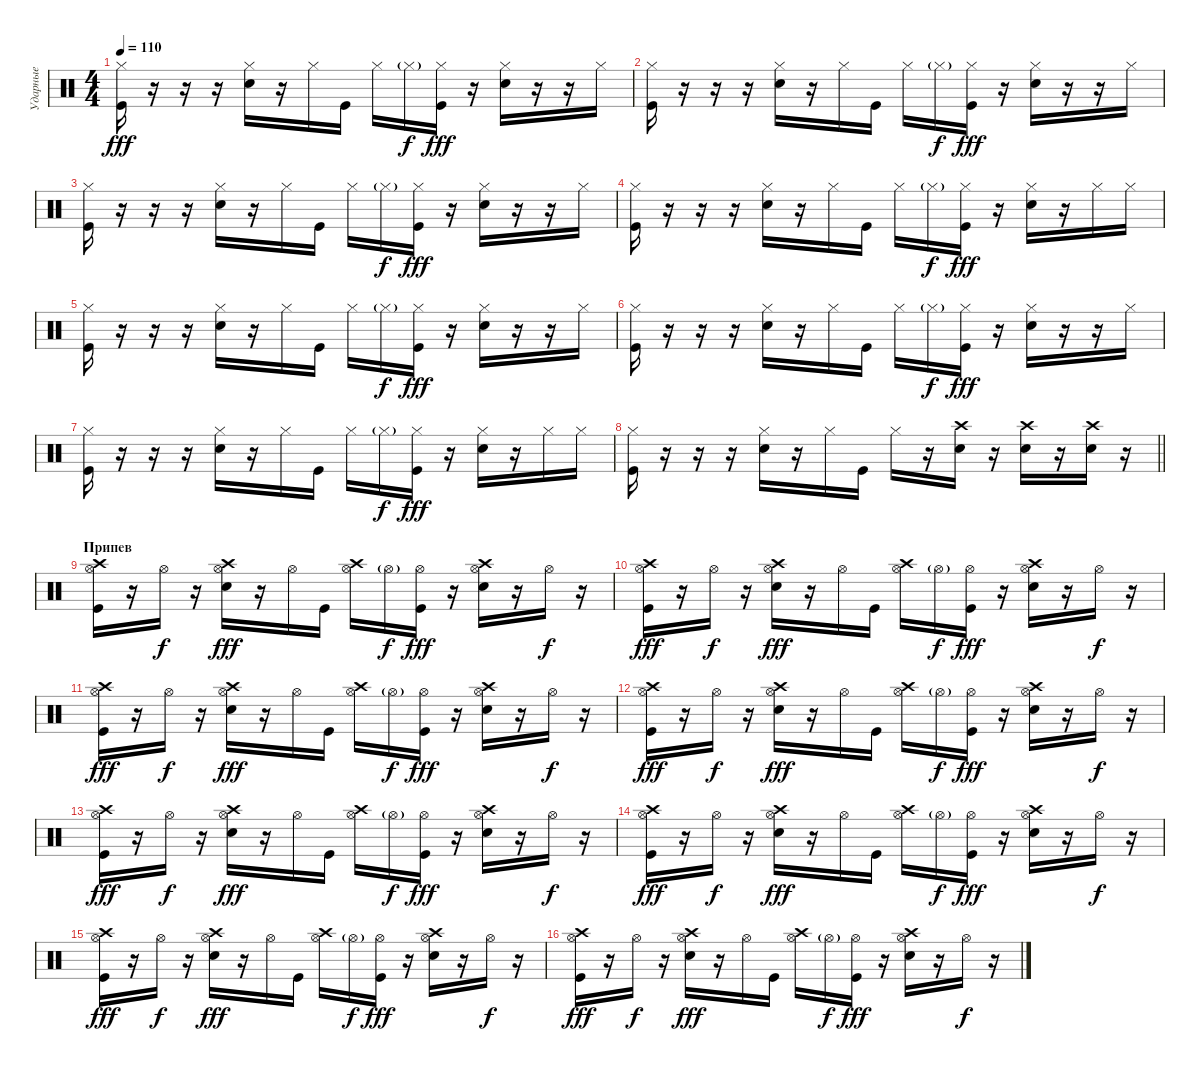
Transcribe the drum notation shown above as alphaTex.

\track ("Ударные" "Ударные") {instrument percussion}
\staff {score}
\articulation defaults
\ts (4 4)
\tempo 110
\clef neutral
\ks c
("Hi-Hat (closed)" "Kick (hit)").16{dy fff} r.16 r.16 r.16 ("Hi-Hat (closed)" "Electric Snare (hit)").16 r.16 "Hi-Hat (closed)".16 "Kick (hit)".16 "Hi-Hat (closed)".16 "Hi-Hat (closed)"{g}.16{dy f} ("Hi-Hat (closed)" "Kick (hit)").16{dy fff} r.16 ("Hi-Hat (closed)" "Electric Snare (hit)").16 r.16 r.16 "Hi-Hat (closed)".16 |
("Hi-Hat (closed)" "Kick (hit)").16 r.16 r.16 r.16 ("Hi-Hat (closed)" "Electric Snare (hit)").16 r.16 "Hi-Hat (closed)".16 "Kick (hit)".16 "Hi-Hat (closed)".16 "Hi-Hat (closed)"{g}.16{dy f} ("Hi-Hat (closed)" "Kick (hit)").16{dy fff} r.16 ("Hi-Hat (closed)" "Electric Snare (hit)").16 r.16 r.16 "Hi-Hat (closed)".16 |
("Hi-Hat (closed)" "Kick (hit)").16 r.16 r.16 r.16 ("Hi-Hat (closed)" "Electric Snare (hit)").16 r.16 "Hi-Hat (closed)".16 "Kick (hit)".16 "Hi-Hat (closed)".16 "Hi-Hat (closed)"{g}.16{dy f} ("Hi-Hat (closed)" "Kick (hit)").16{dy fff} r.16 ("Hi-Hat (closed)" "Electric Snare (hit)").16 r.16 r.16 "Hi-Hat (closed)".16 |
("Hi-Hat (closed)" "Kick (hit)").16 r.16 r.16 r.16 ("Hi-Hat (closed)" "Electric Snare (hit)").16 r.16 "Hi-Hat (closed)".16 "Kick (hit)".16 "Hi-Hat (closed)".16 "Hi-Hat (closed)"{g}.16{dy f} ("Hi-Hat (closed)" "Kick (hit)").16{dy fff} r.16 ("Hi-Hat (closed)" "Electric Snare (hit)").16 r.16 "Hi-Hat (closed)".16 "Hi-Hat (closed)".16 |
("Hi-Hat (closed)" "Kick (hit)").16 r.16 r.16 r.16 ("Hi-Hat (closed)" "Electric Snare (hit)").16 r.16 "Hi-Hat (closed)".16 "Kick (hit)".16 "Hi-Hat (closed)".16 "Hi-Hat (closed)"{g}.16{dy f} ("Hi-Hat (closed)" "Kick (hit)").16{dy fff} r.16 ("Hi-Hat (closed)" "Electric Snare (hit)").16 r.16 r.16 "Hi-Hat (closed)".16 |
("Hi-Hat (closed)" "Kick (hit)").16 r.16 r.16 r.16 ("Hi-Hat (closed)" "Electric Snare (hit)").16 r.16 "Hi-Hat (closed)".16 "Kick (hit)".16 "Hi-Hat (closed)".16 "Hi-Hat (closed)"{g}.16{dy f} ("Hi-Hat (closed)" "Kick (hit)").16{dy fff} r.16 ("Hi-Hat (closed)" "Electric Snare (hit)").16 r.16 r.16 "Hi-Hat (closed)".16 |
("Hi-Hat (closed)" "Kick (hit)").16 r.16 r.16 r.16 ("Hi-Hat (closed)" "Electric Snare (hit)").16 r.16 "Hi-Hat (closed)".16 "Kick (hit)".16 "Hi-Hat (closed)".16 "Hi-Hat (closed)"{g}.16{dy f} ("Hi-Hat (closed)" "Kick (hit)").16{dy fff} r.16 ("Hi-Hat (closed)" "Electric Snare (hit)").16 r.16 "Hi-Hat (closed)".16 "Hi-Hat (closed)".16 |
\barLineRight lightlight
("Hi-Hat (closed)" "Kick (hit)").16 r.16 r.16 r.16 ("Hi-Hat (closed)" "Electric Snare (hit)").16 r.16 "Hi-Hat (closed)".16 "Kick (hit)".16 "Hi-Hat (closed)".16 r.16 ("Electric Snare (hit)" "Crash high (hit)").16 r.16 ("Electric Snare (hit)" "Crash high (hit)").16 r.16 ("Electric Snare (hit)" "Crash high (hit)").16 r.16 |
\section ("" "Припев")
("Hi-Hat (open)" "Kick (hit)" "Crash high (hit)").16 r.16 "Hi-Hat (open)".16{dy f} r.16 ("Hi-Hat (open)" "Electric Snare (hit)" "Crash high (hit)").16{dy fff} r.16 "Hi-Hat (open)".16 "Kick (hit)".16 ("Hi-Hat (open)" "Crash high (hit)").16 "Hi-Hat (open)"{g}.16{dy f} ("Hi-Hat (open)" "Kick (hit)").16{dy fff} r.16 ("Hi-Hat (open)" "Electric Snare (hit)" "Crash high (hit)").16 r.16 "Hi-Hat (open)".16{dy f} r.16 |
("Hi-Hat (open)" "Kick (hit)" "Crash high (hit)").16{dy fff} r.16 "Hi-Hat (open)".16{dy f} r.16 ("Hi-Hat (open)" "Electric Snare (hit)" "Crash high (hit)").16{dy fff} r.16 "Hi-Hat (open)".16 "Kick (hit)".16 ("Hi-Hat (open)" "Crash high (hit)").16 "Hi-Hat (open)"{g}.16{dy f} ("Hi-Hat (open)" "Kick (hit)").16{dy fff} r.16 ("Hi-Hat (open)" "Electric Snare (hit)" "Crash high (hit)").16 r.16 "Hi-Hat (open)".16{dy f} r.16 |
("Hi-Hat (open)" "Kick (hit)" "Crash high (hit)").16{dy fff} r.16 "Hi-Hat (open)".16{dy f} r.16 ("Hi-Hat (open)" "Electric Snare (hit)" "Crash high (hit)").16{dy fff} r.16 "Hi-Hat (open)".16 "Kick (hit)".16 ("Hi-Hat (open)" "Crash high (hit)").16 "Hi-Hat (open)"{g}.16{dy f} ("Hi-Hat (open)" "Kick (hit)").16{dy fff} r.16 ("Hi-Hat (open)" "Electric Snare (hit)" "Crash high (hit)").16 r.16 "Hi-Hat (open)".16{dy f} r.16 |
("Hi-Hat (open)" "Kick (hit)" "Crash high (hit)").16{dy fff} r.16 "Hi-Hat (open)".16{dy f} r.16 ("Hi-Hat (open)" "Electric Snare (hit)" "Crash high (hit)").16{dy fff} r.16 "Hi-Hat (open)".16 "Kick (hit)".16 ("Hi-Hat (open)" "Crash high (hit)").16 "Hi-Hat (open)"{g}.16{dy f} ("Hi-Hat (open)" "Kick (hit)").16{dy fff} r.16 ("Hi-Hat (open)" "Electric Snare (hit)" "Crash high (hit)").16 r.16 "Hi-Hat (open)".16{dy f} r.16 |
("Hi-Hat (open)" "Kick (hit)" "Crash high (hit)").16{dy fff} r.16 "Hi-Hat (open)".16{dy f} r.16 ("Hi-Hat (open)" "Electric Snare (hit)" "Crash high (hit)").16{dy fff} r.16 "Hi-Hat (open)".16 "Kick (hit)".16 ("Hi-Hat (open)" "Crash high (hit)").16 "Hi-Hat (open)"{g}.16{dy f} ("Hi-Hat (open)" "Kick (hit)").16{dy fff} r.16 ("Hi-Hat (open)" "Electric Snare (hit)" "Crash high (hit)").16 r.16 "Hi-Hat (open)".16{dy f} r.16 |
("Hi-Hat (open)" "Kick (hit)" "Crash high (hit)").16{dy fff} r.16 "Hi-Hat (open)".16{dy f} r.16 ("Hi-Hat (open)" "Electric Snare (hit)" "Crash high (hit)").16{dy fff} r.16 "Hi-Hat (open)".16 "Kick (hit)".16 ("Hi-Hat (open)" "Crash high (hit)").16 "Hi-Hat (open)"{g}.16{dy f} ("Hi-Hat (open)" "Kick (hit)").16{dy fff} r.16 ("Hi-Hat (open)" "Electric Snare (hit)" "Crash high (hit)").16 r.16 "Hi-Hat (open)".16{dy f} r.16 |
("Hi-Hat (open)" "Kick (hit)" "Crash high (hit)").16{dy fff} r.16 "Hi-Hat (open)".16{dy f} r.16 ("Hi-Hat (open)" "Electric Snare (hit)" "Crash high (hit)").16{dy fff} r.16 "Hi-Hat (open)".16 "Kick (hit)".16 ("Hi-Hat (open)" "Crash high (hit)").16 "Hi-Hat (open)"{g}.16{dy f} ("Hi-Hat (open)" "Kick (hit)").16{dy fff} r.16 ("Hi-Hat (open)" "Electric Snare (hit)" "Crash high (hit)").16 r.16 "Hi-Hat (open)".16{dy f} r.16 |
("Hi-Hat (open)" "Kick (hit)" "Crash high (hit)").16{dy fff} r.16 "Hi-Hat (open)".16{dy f} r.16 ("Hi-Hat (open)" "Electric Snare (hit)" "Crash high (hit)").16{dy fff} r.16 "Hi-Hat (open)".16 "Kick (hit)".16 ("Hi-Hat (open)" "Crash high (hit)").16 "Hi-Hat (open)"{g}.16{dy f} ("Hi-Hat (open)" "Kick (hit)").16{dy fff} r.16 ("Hi-Hat (open)" "Electric Snare (hit)" "Crash high (hit)").16 r.16 "Hi-Hat (open)".16{dy f} r.16
